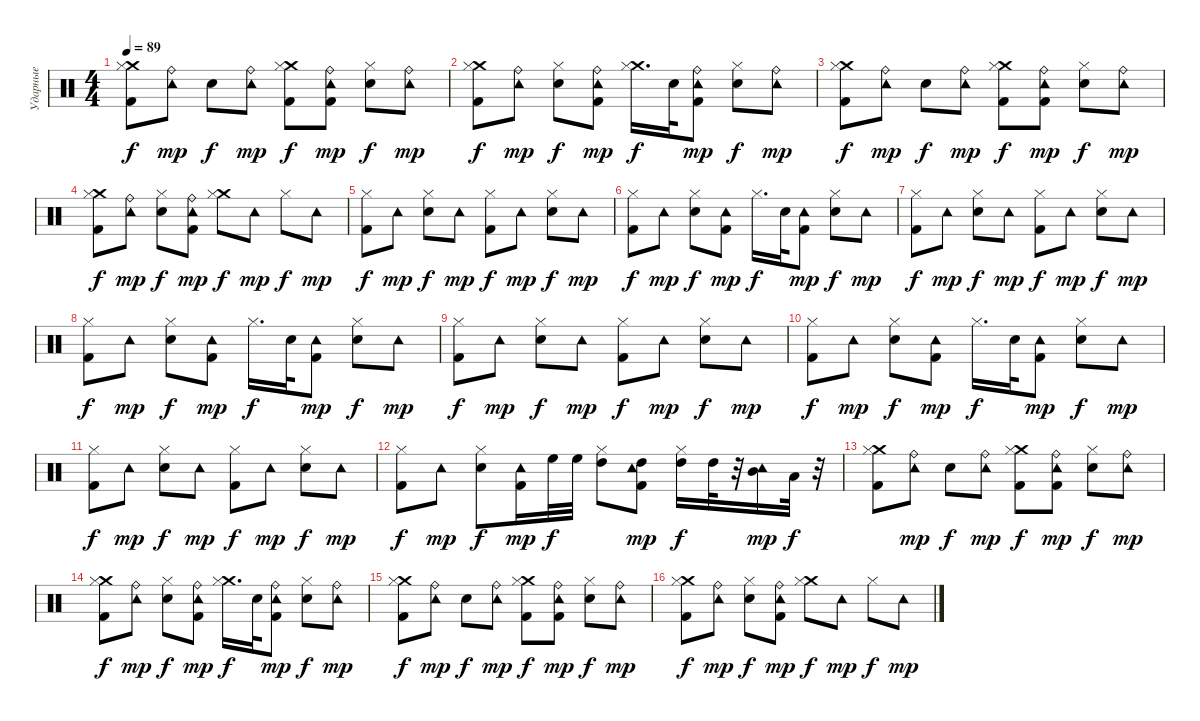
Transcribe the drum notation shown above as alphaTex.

\track ("Ударные" "Ударные") {instrument percussion}
\staff {score}
\articulation defaults
\ts (4 4)
\tempo 89
\clef neutral
\ks c
("Crash medium (hit)" "Kick (hit) 2" "Hi-Hat (closed)").8{dy f} ("Ride (bell)" "Tambourine (hit)").8{dy mp} "Electric Snare (hit)".8{dy f} ("Ride (bell)" "Tambourine (hit)").8{dy mp} ("Crash medium (hit)" "Kick (hit) 2" "Hi-Hat (closed)").8{dy f} ("Kick (hit) 2" "Ride (bell)" "Tambourine (hit)").8{dy mp} ("Electric Snare (hit)" "Hi-Hat (closed)").8{dy f} ("Ride (bell)" "Tambourine (hit)").8{dy mp} |
("Crash medium (hit)" "Kick (hit) 2" "Hi-Hat (closed)").8{dy f} ("Ride (bell)" "Tambourine (hit)").8{dy mp} ("Electric Snare (hit)" "Hi-Hat (closed)").8{dy f} ("Ride (bell)" "Kick (hit) 2" "Tambourine (hit)").8{dy mp} ("Crash medium (hit)" "Hi-Hat (closed)").16{d dy f} "Electric Snare (hit)".32 ("Ride (bell)" "Kick (hit) 2" "Tambourine (hit)").8{dy mp} ("Electric Snare (hit)" "Hi-Hat (closed)").8{dy f} ("Ride (bell)" "Tambourine (hit)").8{dy mp} |
("Crash medium (hit)" "Kick (hit) 2" "Hi-Hat (closed)").8{dy f} ("Ride (bell)" "Tambourine (hit)").8{dy mp} "Electric Snare (hit)".8{dy f} ("Ride (bell)" "Tambourine (hit)").8{dy mp} ("Crash medium (hit)" "Kick (hit) 2" "Hi-Hat (closed)").8{dy f} ("Kick (hit) 2" "Ride (bell)" "Tambourine (hit)").8{dy mp} ("Electric Snare (hit)" "Hi-Hat (closed)").8{dy f} ("Ride (bell)" "Tambourine (hit)").8{dy mp} |
("Crash medium (hit)" "Kick (hit) 2" "Hi-Hat (closed)").8{dy f} ("Ride (bell)" "Tambourine (hit)").8{dy mp} ("Electric Snare (hit)" "Hi-Hat (closed)").8{dy f} ("Ride (bell)" "Kick (hit) 2" "Tambourine (hit)").8{dy mp} ("Crash medium (hit)" "Hi-Hat (closed)").8{dy f} "Tambourine (hit)".8{dy mp} "Hi-Hat (closed)".8{dy f} "Tambourine (hit)".8{dy mp} |
("Kick (hit) 2" "Hi-Hat (closed)").8{dy f} "Tambourine (hit)".8{dy mp} ("Electric Snare (hit)" "Hi-Hat (closed)").8{dy f} "Tambourine (hit)".8{dy mp} ("Kick (hit) 2" "Hi-Hat (closed)").8{dy f} "Tambourine (hit)".8{dy mp} ("Electric Snare (hit)" "Hi-Hat (closed)").8{dy f} "Tambourine (hit)".8{dy mp} |
("Kick (hit) 2" "Hi-Hat (closed)").8{dy f} "Tambourine (hit)".8{dy mp} ("Electric Snare (hit)" "Hi-Hat (closed)").8{dy f} ("Kick (hit) 2" "Tambourine (hit)").8{dy mp} "Hi-Hat (closed)".16{d dy f} "Electric Snare (hit)".32 ("Kick (hit) 2" "Tambourine (hit)").8{dy mp} ("Electric Snare (hit)" "Hi-Hat (closed)").8{dy f} "Tambourine (hit)".8{dy mp} |
("Kick (hit) 2" "Hi-Hat (closed)").8{dy f} "Tambourine (hit)".8{dy mp} ("Electric Snare (hit)" "Hi-Hat (closed)").8{dy f} "Tambourine (hit)".8{dy mp} ("Kick (hit) 2" "Hi-Hat (closed)").8{dy f} "Tambourine (hit)".8{dy mp} ("Electric Snare (hit)" "Hi-Hat (closed)").8{dy f} "Tambourine (hit)".8{dy mp} |
("Kick (hit) 2" "Hi-Hat (closed)").8{dy f} "Tambourine (hit)".8{dy mp} ("Electric Snare (hit)" "Hi-Hat (closed)").8{dy f} ("Kick (hit) 2" "Tambourine (hit)").8{dy mp} "Hi-Hat (closed)".16{d dy f} "Electric Snare (hit)".32 ("Kick (hit) 2" "Tambourine (hit)").8{dy mp} ("Electric Snare (hit)" "Hi-Hat (closed)").8{dy f} "Tambourine (hit)".8{dy mp} |
("Kick (hit) 2" "Hi-Hat (closed)").8{dy f} "Tambourine (hit)".8{dy mp} ("Electric Snare (hit)" "Hi-Hat (closed)").8{dy f} "Tambourine (hit)".8{dy mp} ("Kick (hit) 2" "Hi-Hat (closed)").8{dy f} "Tambourine (hit)".8{dy mp} ("Electric Snare (hit)" "Hi-Hat (closed)").8{dy f} "Tambourine (hit)".8{dy mp} |
("Kick (hit) 2" "Hi-Hat (closed)").8{dy f} "Tambourine (hit)".8{dy mp} ("Electric Snare (hit)" "Hi-Hat (closed)").8{dy f} ("Kick (hit) 2" "Tambourine (hit)").8{dy mp} "Hi-Hat (closed)".16{d dy f} "Electric Snare (hit)".32 ("Kick (hit) 2" "Tambourine (hit)").8{dy mp} ("Electric Snare (hit)" "Hi-Hat (closed)").8{dy f} "Tambourine (hit)".8{dy mp} |
("Kick (hit) 2" "Hi-Hat (closed)").8{dy f} "Tambourine (hit)".8{dy mp} ("Electric Snare (hit)" "Hi-Hat (closed)").8{dy f} "Tambourine (hit)".8{dy mp} ("Kick (hit) 2" "Hi-Hat (closed)").8{dy f} "Tambourine (hit)".8{dy mp} ("Electric Snare (hit)" "Hi-Hat (closed)").8{dy f} "Tambourine (hit)".8{dy mp} |
("Kick (hit) 2" "Hi-Hat (closed)").8{dy f} "Tambourine (hit)".8{dy mp} ("Electric Snare (hit)" "Hi-Hat (closed)").8{dy f} ("Kick (hit) 2" "Tambourine (hit)").16{dy mp} "High Floor Tom (hit)".32{dy f} "High Floor Tom (hit)".32 ("High Tom (hit)" "Hi-Hat (closed)").8 ("High Tom (hit)" "Tambourine (hit)" "Kick (hit) 2").8{dy mp} ("High Tom (hit)" "Hi-Hat (closed)").16{dy f} "High Tom (hit)".32 r.32 ("Mid Tom (hit)" "Tambourine (hit)").16{dy mp} "Low Tom (hit)".32{dy f} r.32 |
("Crash medium (hit)" "Kick (hit) 2" "Hi-Hat (closed)").8 ("Ride (bell)" "Tambourine (hit)").8{dy mp} "Electric Snare (hit)".8{dy f} ("Ride (bell)" "Tambourine (hit)").8{dy mp} ("Crash medium (hit)" "Kick (hit) 2" "Hi-Hat (closed)").8{dy f} ("Kick (hit) 2" "Ride (bell)" "Tambourine (hit)").8{dy mp} ("Electric Snare (hit)" "Hi-Hat (closed)").8{dy f} ("Ride (bell)" "Tambourine (hit)").8{dy mp} |
("Crash medium (hit)" "Kick (hit) 2" "Hi-Hat (closed)").8{dy f} ("Ride (bell)" "Tambourine (hit)").8{dy mp} ("Electric Snare (hit)" "Hi-Hat (closed)").8{dy f} ("Ride (bell)" "Kick (hit) 2" "Tambourine (hit)").8{dy mp} ("Crash medium (hit)" "Hi-Hat (closed)").16{d dy f} "Electric Snare (hit)".32 ("Ride (bell)" "Kick (hit) 2" "Tambourine (hit)").8{dy mp} ("Electric Snare (hit)" "Hi-Hat (closed)").8{dy f} ("Ride (bell)" "Tambourine (hit)").8{dy mp} |
("Crash medium (hit)" "Kick (hit) 2" "Hi-Hat (closed)").8{dy f} ("Ride (bell)" "Tambourine (hit)").8{dy mp} "Electric Snare (hit)".8{dy f} ("Ride (bell)" "Tambourine (hit)").8{dy mp} ("Crash medium (hit)" "Kick (hit) 2" "Hi-Hat (closed)").8{dy f} ("Kick (hit) 2" "Ride (bell)" "Tambourine (hit)").8{dy mp} ("Electric Snare (hit)" "Hi-Hat (closed)").8{dy f} ("Ride (bell)" "Tambourine (hit)").8{dy mp} |
("Crash medium (hit)" "Kick (hit) 2" "Hi-Hat (closed)").8{dy f} ("Ride (bell)" "Tambourine (hit)").8{dy mp} ("Electric Snare (hit)" "Hi-Hat (closed)").8{dy f} ("Ride (bell)" "Kick (hit) 2" "Tambourine (hit)").8{dy mp} ("Crash medium (hit)" "Hi-Hat (closed)").8{dy f} "Tambourine (hit)".8{dy mp} "Hi-Hat (closed)".8{dy f} "Tambourine (hit)".8{dy mp}
